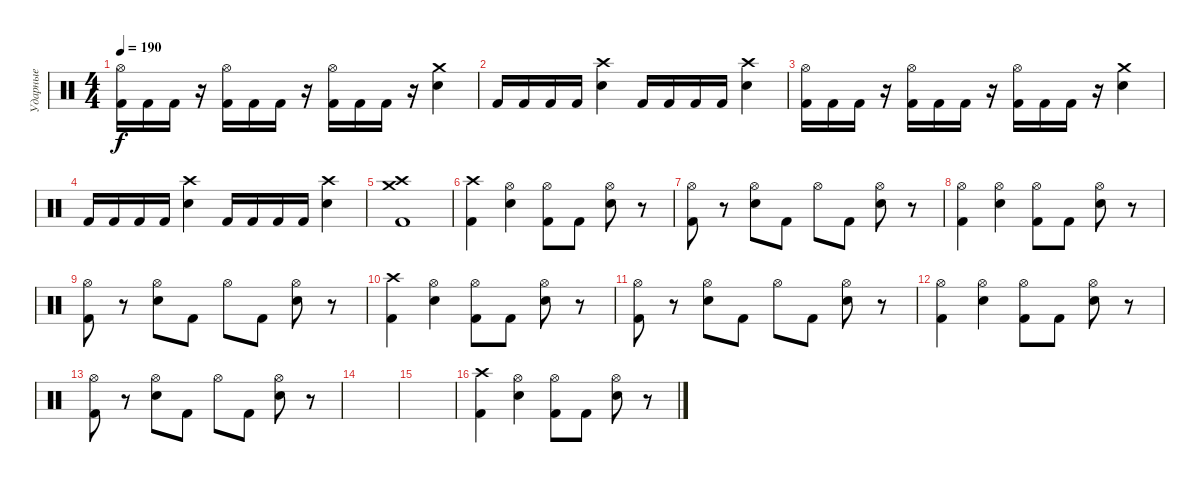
\track ("Ударные" "Ударные") {instrument percussion}
\staff {score}
\articulation defaults
\ts (4 4)
\tempo 190
\clef neutral
\ks c
("Hi-Hat (open)" "Kick (hit) 2").16{dy f} "Kick (hit) 2".16 "Kick (hit) 2".16 r.16 ("Hi-Hat (open)" "Kick (hit) 2").16 "Kick (hit) 2".16 "Kick (hit) 2".16 r.16 ("Hi-Hat (open)" "Kick (hit) 2").16 "Kick (hit) 2".16 "Kick (hit) 2".16 r.16 ("Crash medium (hit)" "Snare (hit) 2").4 |
"Kick (hit) 2".16 "Kick (hit) 2".16 "Kick (hit) 2".16 "Kick (hit) 2".16 ("Crash high (hit)" "Snare (hit) 2").4 "Kick (hit) 2".16 "Kick (hit) 2".16 "Kick (hit) 2".16 "Kick (hit) 2".16 ("Crash high (hit)" "Snare (hit) 2").4 |
("Hi-Hat (open)" "Kick (hit) 2").16 "Kick (hit) 2".16 "Kick (hit) 2".16 r.16 ("Hi-Hat (open)" "Kick (hit) 2").16 "Kick (hit) 2".16 "Kick (hit) 2".16 r.16 ("Hi-Hat (open)" "Kick (hit) 2").16 "Kick (hit) 2".16 "Kick (hit) 2".16 r.16 ("Crash medium (hit)" "Snare (hit) 2").4 |
"Kick (hit) 2".16 "Kick (hit) 2".16 "Kick (hit) 2".16 "Kick (hit) 2".16 ("Crash high (hit)" "Snare (hit) 2").4 "Kick (hit) 2".16 "Kick (hit) 2".16 "Kick (hit) 2".16 "Kick (hit) 2".16 ("Crash high (hit)" "Snare (hit) 2").4 |
("Crash medium (hit)" "Crash high (hit)" "Kick (hit) 2").1 |
("Crash high (hit)" "Kick (hit) 2").4 ("Hi-Hat (open)" "Snare (hit) 2").4 ("Hi-Hat (open)" "Kick (hit) 2").8 "Kick (hit) 2".8 ("Hi-Hat (open)" "Snare (hit) 2").8 r.8 |
("Hi-Hat (open)" "Kick (hit) 2").8 r.8 ("Hi-Hat (open)" "Snare (hit) 2").8 "Kick (hit) 2".8 "Hi-Hat (open)".8 "Kick (hit) 2".8 ("Hi-Hat (open)" "Snare (hit) 2").8 r.8 |
("Hi-Hat (open)" "Kick (hit) 2").4 ("Hi-Hat (open)" "Snare (hit) 2").4 ("Hi-Hat (open)" "Kick (hit) 2").8 "Kick (hit) 2".8 ("Hi-Hat (open)" "Snare (hit) 2").8 r.8 |
("Hi-Hat (open)" "Kick (hit) 2").8 r.8 ("Hi-Hat (open)" "Snare (hit) 2").8 "Kick (hit) 2".8 "Hi-Hat (open)".8 "Kick (hit) 2".8 ("Hi-Hat (open)" "Snare (hit) 2").8 r.8 |
("Crash high (hit)" "Kick (hit) 2").4 ("Hi-Hat (open)" "Snare (hit) 2").4 ("Hi-Hat (open)" "Kick (hit) 2").8 "Kick (hit) 2".8 ("Hi-Hat (open)" "Snare (hit) 2").8 r.8 |
("Hi-Hat (open)" "Kick (hit) 2").8 r.8 ("Hi-Hat (open)" "Snare (hit) 2").8 "Kick (hit) 2".8 "Hi-Hat (open)".8 "Kick (hit) 2".8 ("Hi-Hat (open)" "Snare (hit) 2").8 r.8 |
("Hi-Hat (open)" "Kick (hit) 2").4 ("Hi-Hat (open)" "Snare (hit) 2").4 ("Hi-Hat (open)" "Kick (hit) 2").8 "Kick (hit) 2".8 ("Hi-Hat (open)" "Snare (hit) 2").8 r.8 |
("Hi-Hat (open)" "Kick (hit) 2").8 r.8 ("Hi-Hat (open)" "Snare (hit) 2").8 "Kick (hit) 2".8 "Hi-Hat (open)".8 "Kick (hit) 2".8 ("Hi-Hat (open)" "Snare (hit) 2").8 r.8 |
|
|
("Crash high (hit)" "Kick (hit) 2").4 ("Hi-Hat (open)" "Snare (hit) 2").4 ("Hi-Hat (open)" "Kick (hit) 2").8 "Kick (hit) 2".8 ("Hi-Hat (open)" "Snare (hit) 2").8 r.8
